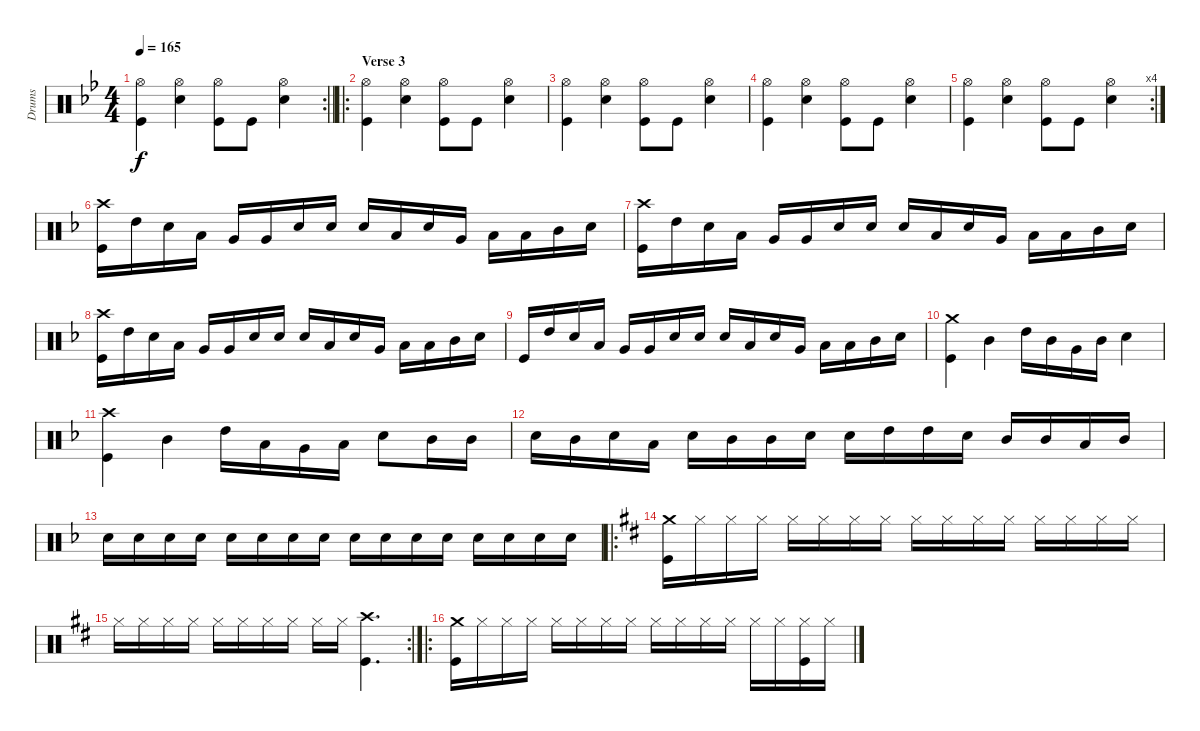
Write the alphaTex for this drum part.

\track ("Drums" "Drums") {instrument percussion}
\staff {score}
\articulation defaults
\rc 2
\ts (4 4)
\tempo 165
\clef neutral
\barLineRight lightlight
\ks bb
("Hi-Hat (open)" "Kick (hit)").4{dy f} ("Hi-Hat (open)" "Snare (hit) 2").4 ("Hi-Hat (open)" "Kick (hit)").8 "Kick (hit)".8 ("Hi-Hat (open)" "Snare (hit) 2").4 |
\ro
\section ("" "Verse 3")
("Hi-Hat (open)" "Kick (hit)").4 ("Hi-Hat (open)" "Snare (hit) 2").4 ("Hi-Hat (open)" "Kick (hit)").8 "Kick (hit)".8 ("Hi-Hat (open)" "Snare (hit) 2").4 |
("Hi-Hat (open)" "Kick (hit)").4 ("Hi-Hat (open)" "Snare (hit) 2").4 ("Hi-Hat (open)" "Kick (hit)").8 "Kick (hit)".8 ("Hi-Hat (open)" "Snare (hit) 2").4 |
("Hi-Hat (open)" "Kick (hit)").4 ("Hi-Hat (open)" "Snare (hit) 2").4 ("Hi-Hat (open)" "Kick (hit)").8 "Kick (hit)".8 ("Hi-Hat (open)" "Snare (hit) 2").4 |
\rc 4
("Hi-Hat (open)" "Kick (hit)").4 ("Hi-Hat (open)" "Snare (hit) 2").4 ("Hi-Hat (open)" "Kick (hit)").8 "Kick (hit)".8 ("Hi-Hat (open)" "Snare (hit) 2").4 |
\ks f
("Crash high (hit)" "Kick (hit)").16 "High Tom (hit)".16 "Snare (hit) 2".16 "Low Tom (hit)".16 "Very Low Tom (hit)".16 "Very Low Tom (hit)".16 "Snare (hit) 2".16 "Snare (hit) 2".16 "Snare (hit) 2".16 "Low Floor Tom (hit)".16 "Snare (hit) 2".16 "Very Low Tom (hit)".16 "Low Tom (hit)".16 "Low Tom (hit)".16 "Mid Tom (hit)".16 "Snare (hit) 2".16 |
("Crash high (hit)" "Kick (hit)").16 "High Tom (hit)".16 "Snare (hit) 2".16 "Low Tom (hit)".16 "Very Low Tom (hit)".16 "Very Low Tom (hit)".16 "Snare (hit) 2".16 "Snare (hit) 2".16 "Snare (hit) 2".16 "Low Floor Tom (hit)".16 "Snare (hit) 2".16 "Very Low Tom (hit)".16 "Low Tom (hit)".16 "Low Tom (hit)".16 "Mid Tom (hit)".16 "Snare (hit) 2".16 |
("Crash high (hit)" "Kick (hit)").16 "High Tom (hit)".16 "Snare (hit) 2".16 "Low Tom (hit)".16 "Very Low Tom (hit)".16 "Very Low Tom (hit)".16 "Snare (hit) 2".16 "Snare (hit) 2".16 "Snare (hit) 2".16 "Low Floor Tom (hit)".16 "Snare (hit) 2".16 "Very Low Tom (hit)".16 "Low Tom (hit)".16 "Low Tom (hit)".16 "Mid Tom (hit)".16 "Snare (hit) 2".16 |
"Kick (hit)".16 "High Tom (hit)".16 "Snare (hit) 2".16 "Low Tom (hit)".16 "Very Low Tom (hit)".16 "Very Low Tom (hit)".16 "Snare (hit) 2".16 "Snare (hit) 2".16 "Snare (hit) 2".16 "Low Floor Tom (hit)".16 "Snare (hit) 2".16 "Very Low Tom (hit)".16 "Low Tom (hit)".16 "Low Tom (hit)".16 "Mid Tom (hit)".16 "Snare (hit) 2".16 |
("Crash medium (hit)" "Kick (hit)").4 "Mid Tom (hit)".4 "High Tom (hit)".16 "Mid Tom (hit)".16 "Very Low Tom (hit)".16 "Mid Tom (hit)".16 "Snare (hit) 2".4 |
("Crash high (hit)" "Kick (hit)").4 "Mid Tom (hit)".4 "High Tom (hit)".16 "Low Tom (hit)".16 "Very Low Tom (hit)".16 "Low Tom (hit)".16 "Snare (hit) 2".8 "Mid Tom (hit)".16 "Mid Tom (hit)".16 |
"Snare (hit) 2".16 "Mid Tom (hit)".16 "Snare (hit) 2".16 "Low Tom (hit)".16 "Snare (hit) 2".16 "Mid Tom (hit)".16 "Mid Tom (hit)".16 "Snare (hit) 2".16 "Snare (hit) 2".16 "High Tom (hit)".16 "High Tom (hit)".16 "Snare (hit) 2".16 "Mid Tom (hit)".16 "Mid Tom (hit)".16 "Low Tom (hit)".16 "Mid Tom (hit)".16 |
"Snare (hit) 2".16 "Snare (hit) 2".16 "Snare (hit) 2".16 "Snare (hit) 2".16 "Snare (hit) 2".16 "Snare (hit) 2".16 "Snare (hit) 2".16 "Snare (hit) 2".16 "Snare (hit) 2".16 "Snare (hit) 2".16 "Snare (hit) 2".16 "Snare (hit) 2".16 "Snare (hit) 2".16 "Snare (hit) 2".16 "Snare (hit) 2".16 "Snare (hit) 2".16 |
\ro
\ks d
("Crash medium (hit)" "Kick (hit)").16 "Hi-Hat (closed)".16 "Hi-Hat (closed)".16 "Hi-Hat (closed)".16 "Hi-Hat (closed)".16 "Hi-Hat (closed)".16 "Hi-Hat (closed)".16 "Hi-Hat (closed)".16 "Hi-Hat (closed)".16 "Hi-Hat (closed)".16 "Hi-Hat (closed)".16 "Hi-Hat (closed)".16 "Hi-Hat (closed)".16 "Hi-Hat (closed)".16 "Hi-Hat (closed)".16 "Hi-Hat (closed)".16 |
\rc 2 "Hi-Hat (closed)".16 "Hi-Hat (closed)".16 "Hi-Hat (closed)".16 "Hi-Hat (closed)".16 "Hi-Hat (closed)".16 "Hi-Hat (closed)".16 "Hi-Hat (closed)".16 "Hi-Hat (closed)".16 "Hi-Hat (closed)".16 "Hi-Hat (closed)".16
("Crash high (hit)" "Kick (hit)").4{d} |
\ro
("Crash medium (hit)" "Kick (hit)").16 "Hi-Hat (closed)".16 "Hi-Hat (closed)".16 "Hi-Hat (closed)".16 "Hi-Hat (closed)".16 "Hi-Hat (closed)".16 "Hi-Hat (closed)".16 "Hi-Hat (closed)".16 "Hi-Hat (closed)".16 "Hi-Hat (closed)".16 "Hi-Hat (closed)".16 "Hi-Hat (closed)".16 "Hi-Hat (closed)".16 "Hi-Hat (closed)".16 ("Hi-Hat (closed)" "Kick (hit)").16 "Hi-Hat (closed)".16
